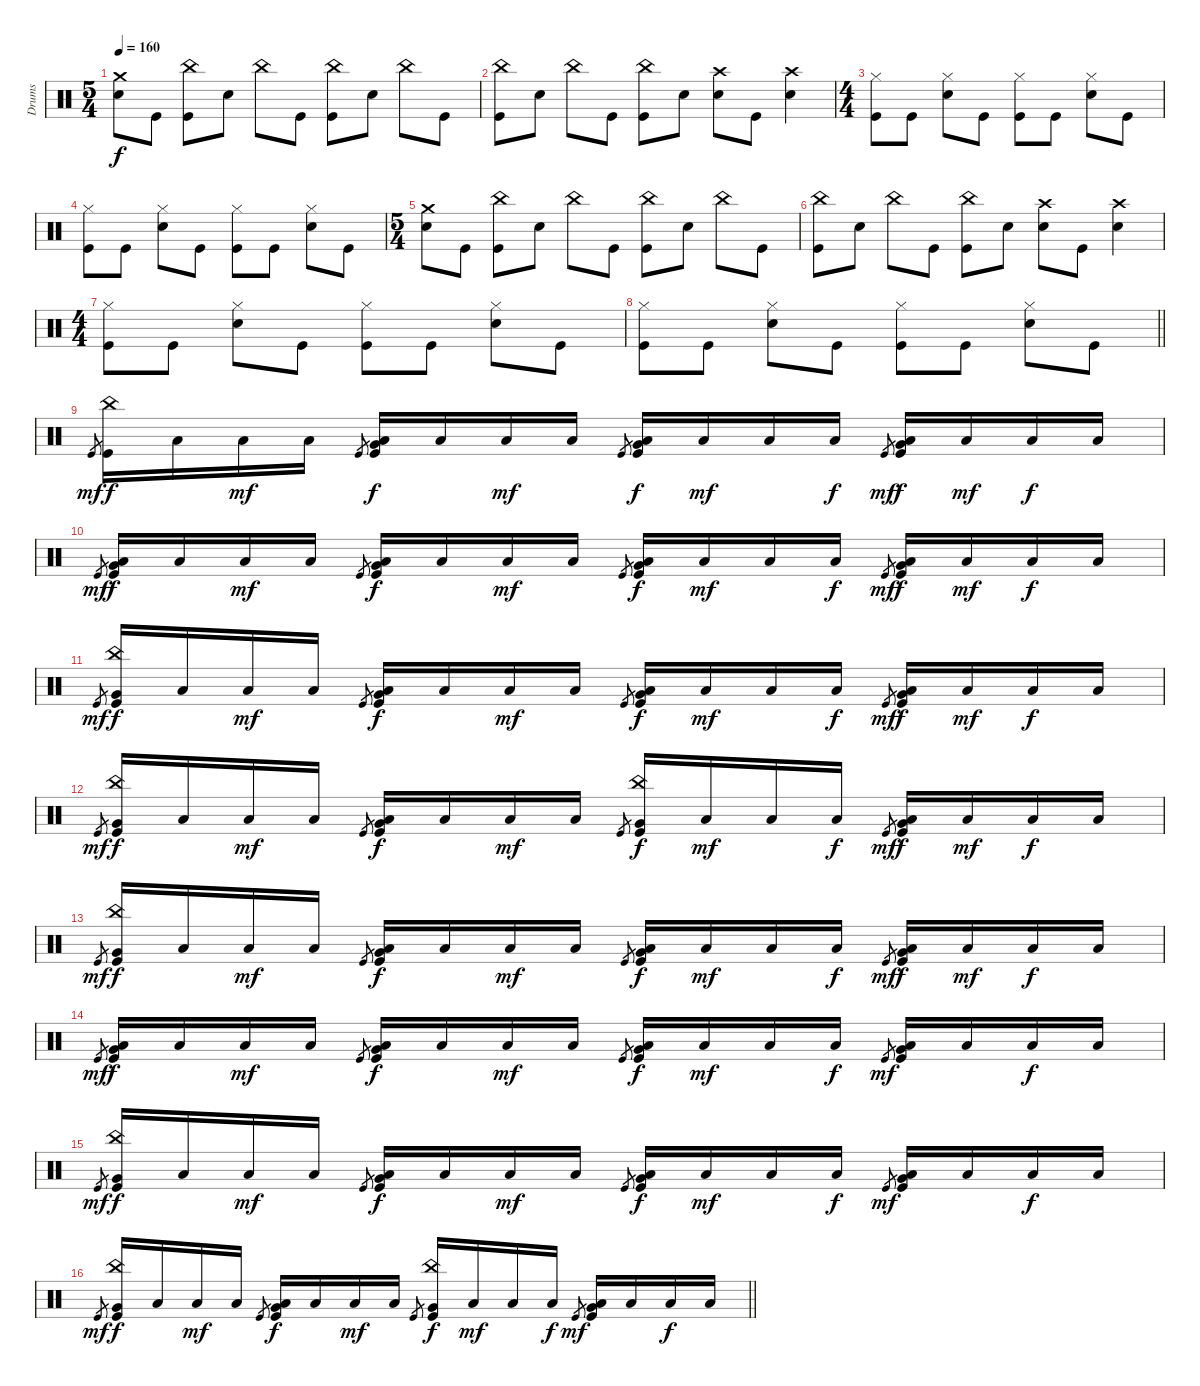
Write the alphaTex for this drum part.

\track ("Drums" "Drums") {instrument percussion}
\staff {score}
\articulation defaults
\ts (5 4)
\tempo 160
\clef neutral
\ks c
("Crash medium (hit)" "Snare (hit) 2").8{dy f} "Kick (hit)".8 ("China (hit)" "Kick (hit)").8 "Snare (hit) 2".8 "China (hit)".8 "Kick (hit)".8 ("China (hit)" "Kick (hit)").8 "Snare (hit) 2".8 "China (hit)".8 "Kick (hit)".8 |
("China (hit)" "Kick (hit)").8 "Snare (hit) 2".8 "China (hit)".8 "Kick (hit)".8 ("China (hit)" "Kick (hit)").8 "Snare (hit) 2".8 ("Crash high (hit)" "Snare (hit) 2").8 "Kick (hit)".8 ("Crash high (hit)" "Snare (hit) 2").4 |
\ts (4 4)
("Hi-Hat (closed)" "Kick (hit)").8 "Kick (hit)".8 ("Hi-Hat (closed)" "Snare (hit) 2").8 "Kick (hit)".8 ("Hi-Hat (closed)" "Kick (hit)").8 "Kick (hit)".8 ("Hi-Hat (closed)" "Snare (hit) 2").8 "Kick (hit)".8 |
("Hi-Hat (closed)" "Kick (hit)").8 "Kick (hit)".8 ("Hi-Hat (closed)" "Snare (hit) 2").8 "Kick (hit)".8 ("Hi-Hat (closed)" "Kick (hit)").8 "Kick (hit)".8 ("Hi-Hat (closed)" "Snare (hit) 2").8 "Kick (hit)".8 |
\ts (5 4)
("Crash medium (hit)" "Snare (hit) 2").8 "Kick (hit)".8 ("China (hit)" "Kick (hit)").8 "Snare (hit) 2".8 "China (hit)".8 "Kick (hit)".8 ("China (hit)" "Kick (hit)").8 "Snare (hit) 2".8 "China (hit)".8 "Kick (hit)".8 |
("China (hit)" "Kick (hit)").8 "Snare (hit) 2".8 "China (hit)".8 "Kick (hit)".8 ("China (hit)" "Kick (hit)").8 "Snare (hit) 2".8 ("Crash high (hit)" "Snare (hit) 2").8 "Kick (hit)".8 ("Crash high (hit)" "Snare (hit) 2").4 |
\ts (4 4)
("Hi-Hat (closed)" "Kick (hit)").8 "Kick (hit)".8 ("Hi-Hat (closed)" "Snare (hit) 2").8 "Kick (hit)".8 ("Hi-Hat (closed)" "Kick (hit)").8 "Kick (hit)".8 ("Hi-Hat (closed)" "Snare (hit) 2").8 "Kick (hit)".8 |
\barLineRight lightlight
("Hi-Hat (closed)" "Kick (hit)").8 "Kick (hit)".8 ("Hi-Hat (closed)" "Snare (hit) 2").8 "Kick (hit)".8 ("Hi-Hat (closed)" "Kick (hit)").8 "Kick (hit)".8 ("Hi-Hat (closed)" "Snare (hit) 2").8 "Kick (hit)".8 |
"Kick (hit)".8{gr dy mf} ("China (hit)" "Kick (hit)").16{dy f} "Low Floor Tom (hit)".16 "Low Floor Tom (hit)".16{dy mf} "Low Floor Tom (hit)".16 "Kick (hit)".8{gr} ("Low Floor Tom (hit)" "Very Low Tom (hit)" "Kick (hit)").16{dy f} "Low Floor Tom (hit)".16 "Low Floor Tom (hit)".16{dy mf} "Low Floor Tom (hit)".16 "Kick (hit)".8{gr} ("Low Floor Tom (hit)" "Very Low Tom (hit)" "Kick (hit)").16{dy f} "Low Floor Tom (hit)".16{dy mf} "Low Floor Tom (hit)".16 "Low Floor Tom (hit)".16{dy f} "Kick (hit)".8{gr dy mf} ("Low Floor Tom (hit)" "Very Low Tom (hit)" "Kick (hit)").16{dy f} "Low Floor Tom (hit)".16{dy mf} "Low Floor Tom (hit)".16{dy f} "Low Floor Tom (hit)".16 |
"Kick (hit)".8{gr dy mf} ("Low Floor Tom (hit)" "Very Low Tom (hit)" "Kick (hit)").16{dy f} "Low Floor Tom (hit)".16 "Low Floor Tom (hit)".16{dy mf} "Low Floor Tom (hit)".16 "Kick (hit)".8{gr} ("Low Floor Tom (hit)" "Very Low Tom (hit)" "Kick (hit)").16{dy f} "Low Floor Tom (hit)".16 "Low Floor Tom (hit)".16{dy mf} "Low Floor Tom (hit)".16 "Kick (hit)".8{gr} ("Low Floor Tom (hit)" "Very Low Tom (hit)" "Kick (hit)").16{dy f} "Low Floor Tom (hit)".16{dy mf} "Low Floor Tom (hit)".16 "Low Floor Tom (hit)".16{dy f} "Kick (hit)".8{gr dy mf} ("Low Floor Tom (hit)" "Very Low Tom (hit)" "Kick (hit)").16{dy f} "Low Floor Tom (hit)".16{dy mf} "Low Floor Tom (hit)".16{dy f} "Low Floor Tom (hit)".16 |
"Kick (hit)".8{gr dy mf} ("China (hit)" "Very Low Tom (hit)" "Kick (hit)").16{dy f} "Low Floor Tom (hit)".16 "Low Floor Tom (hit)".16{dy mf} "Low Floor Tom (hit)".16 "Kick (hit)".8{gr} ("Low Floor Tom (hit)" "Very Low Tom (hit)" "Kick (hit)").16{dy f} "Low Floor Tom (hit)".16 "Low Floor Tom (hit)".16{dy mf} "Low Floor Tom (hit)".16 "Kick (hit)".8{gr} ("Low Floor Tom (hit)" "Very Low Tom (hit)" "Kick (hit)").16{dy f} "Low Floor Tom (hit)".16{dy mf} "Low Floor Tom (hit)".16 "Low Floor Tom (hit)".16{dy f} "Kick (hit)".8{gr dy mf} ("Low Floor Tom (hit)" "Very Low Tom (hit)" "Kick (hit)").16{dy f} "Low Floor Tom (hit)".16{dy mf} "Low Floor Tom (hit)".16{dy f} "Low Floor Tom (hit)".16 |
"Kick (hit)".8{gr dy mf} ("China (hit)" "Very Low Tom (hit)" "Kick (hit)").16{dy f} "Low Floor Tom (hit)".16 "Low Floor Tom (hit)".16{dy mf} "Low Floor Tom (hit)".16 "Kick (hit)".8{gr} ("Low Floor Tom (hit)" "Very Low Tom (hit)" "Kick (hit)").16{dy f} "Low Floor Tom (hit)".16 "Low Floor Tom (hit)".16{dy mf} "Low Floor Tom (hit)".16 "Kick (hit)".8{gr} ("China (hit)" "Very Low Tom (hit)" "Kick (hit)").16{dy f} "Low Floor Tom (hit)".16{dy mf} "Low Floor Tom (hit)".16 "Low Floor Tom (hit)".16{dy f} "Kick (hit)".8{gr dy mf} ("Low Floor Tom (hit)" "Very Low Tom (hit)" "Kick (hit)").16{dy f} "Low Floor Tom (hit)".16{dy mf} "Low Floor Tom (hit)".16{dy f} "Low Floor Tom (hit)".16 |
"Kick (hit)".8{gr dy mf} ("China (hit)" "Very Low Tom (hit)" "Kick (hit)").16{dy f} "Low Floor Tom (hit)".16 "Low Floor Tom (hit)".16{dy mf} "Low Floor Tom (hit)".16 "Kick (hit)".8{gr} ("Low Floor Tom (hit)" "Very Low Tom (hit)" "Kick (hit)").16{dy f} "Low Floor Tom (hit)".16 "Low Floor Tom (hit)".16{dy mf} "Low Floor Tom (hit)".16 "Kick (hit)".8{gr} ("Low Floor Tom (hit)" "Very Low Tom (hit)" "Kick (hit)").16{dy f} "Low Floor Tom (hit)".16{dy mf} "Low Floor Tom (hit)".16 "Low Floor Tom (hit)".16{dy f} "Kick (hit)".8{gr dy mf} ("Low Floor Tom (hit)" "Very Low Tom (hit)" "Kick (hit)").16{dy f} "Low Floor Tom (hit)".16{dy mf} "Low Floor Tom (hit)".16{dy f} "Low Floor Tom (hit)".16 |
"Kick (hit)".8{gr dy mf} ("Low Floor Tom (hit)" "Very Low Tom (hit)" "Kick (hit)").16{dy f} "Low Floor Tom (hit)".16 "Low Floor Tom (hit)".16{dy mf} "Low Floor Tom (hit)".16 "Kick (hit)".8{gr} ("Low Floor Tom (hit)" "Very Low Tom (hit)" "Kick (hit)").16{dy f} "Low Floor Tom (hit)".16 "Low Floor Tom (hit)".16{dy mf} "Low Floor Tom (hit)".16 "Kick (hit)".8{gr} ("Low Floor Tom (hit)" "Very Low Tom (hit)" "Kick (hit)").16{dy f} "Low Floor Tom (hit)".16{dy mf} "Low Floor Tom (hit)".16 "Low Floor Tom (hit)".16{dy f} "Kick (hit)".8{gr dy mf} ("Low Floor Tom (hit)" "Very Low Tom (hit)" "Kick (hit)").16 "Low Floor Tom (hit)".16 "Low Floor Tom (hit)".16{dy f} "Low Floor Tom (hit)".16 |
"Kick (hit)".8{gr dy mf} ("China (hit)" "Very Low Tom (hit)" "Kick (hit)").16{dy f} "Low Floor Tom (hit)".16 "Low Floor Tom (hit)".16{dy mf} "Low Floor Tom (hit)".16 "Kick (hit)".8{gr} ("Low Floor Tom (hit)" "Very Low Tom (hit)" "Kick (hit)").16{dy f} "Low Floor Tom (hit)".16 "Low Floor Tom (hit)".16{dy mf} "Low Floor Tom (hit)".16 "Kick (hit)".8{gr} ("Low Floor Tom (hit)" "Very Low Tom (hit)" "Kick (hit)").16{dy f} "Low Floor Tom (hit)".16{dy mf} "Low Floor Tom (hit)".16 "Low Floor Tom (hit)".16{dy f} "Kick (hit)".8{gr dy mf} ("Low Floor Tom (hit)" "Very Low Tom (hit)" "Kick (hit)").16 "Low Floor Tom (hit)".16 "Low Floor Tom (hit)".16{dy f} "Low Floor Tom (hit)".16 |
\barLineRight lightlight "Kick (hit)".8{gr dy mf}
("China (hit)" "Very Low Tom (hit)" "Kick (hit)").16{dy f} "Low Floor Tom (hit)".16 "Low Floor Tom (hit)".16{dy mf} "Low Floor Tom (hit)".16 "Kick (hit)".8{gr} ("Low Floor Tom (hit)" "Very Low Tom (hit)" "Kick (hit)").16{dy f} "Low Floor Tom (hit)".16 "Low Floor Tom (hit)".16{dy mf} "Low Floor Tom (hit)".16 "Kick (hit)".8{gr} ("China (hit)" "Very Low Tom (hit)" "Kick (hit)").16{dy f} "Low Floor Tom (hit)".16{dy mf} "Low Floor Tom (hit)".16 "Low Floor Tom (hit)".16{dy f} "Kick (hit)".8{gr dy mf} ("Low Floor Tom (hit)" "Very Low Tom (hit)" "Kick (hit)").16 "Low Floor Tom (hit)".16 "Low Floor Tom (hit)".16{dy f} "Low Floor Tom (hit)".16
